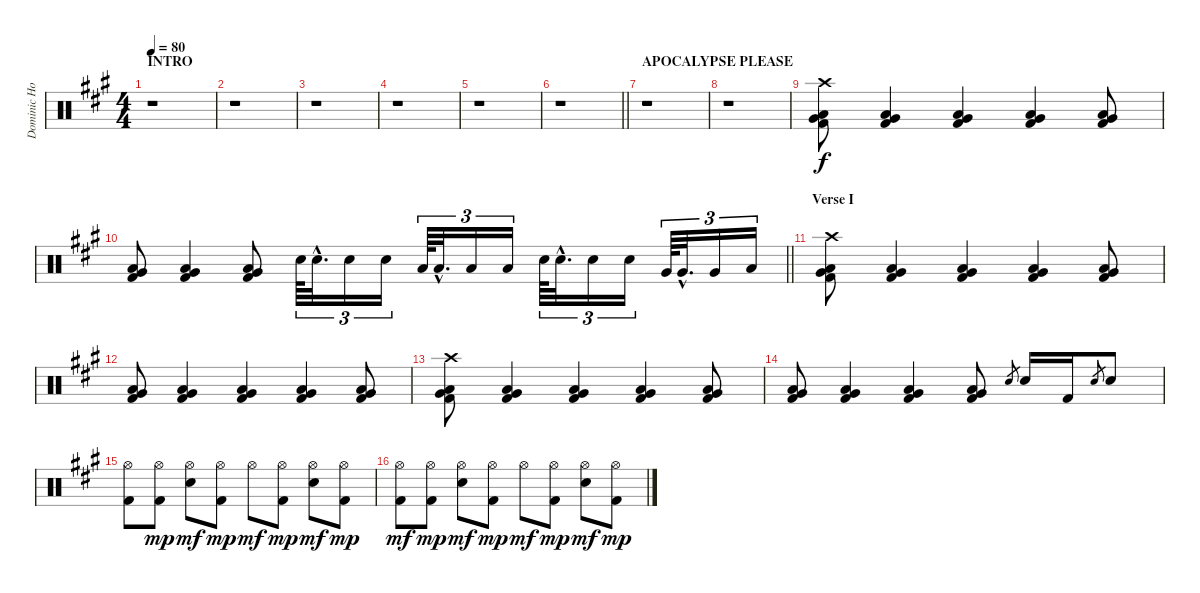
\track ("Dominic Howard Drums" "Dominic Ho") {instrument percussion}
\staff {score}
\articulation defaults
\ts (4 4)
\section ("" "INTRO")
\tempo 80
\clef neutral
\ks a
r.1{dy f} |
r.1 |
r.1 |
r.1 |
r.1 |
\barLineRight lightlight
r.1 |
\section ("" "APOCALYPSE PLEASE")
r.1 |
r.1 |
("Crash high (hit)" "Low Floor Tom (hit)" "Very Low Tom (hit)" "Kick (hit) 2").8{bd 30} ("Low Floor Tom (hit)" "Very Low Tom (hit)" "Kick (hit) 2").4{bd 30} ("Low Floor Tom (hit)" "Very Low Tom (hit)" "Kick (hit) 2").4{bd 30} ("Low Floor Tom (hit)" "Very Low Tom (hit)" "Kick (hit) 2").4{bd 30} ("Low Floor Tom (hit)" "Very Low Tom (hit)" "Kick (hit) 2").8{bd 30} |
\barLineRight lightlight
("Low Floor Tom (hit)" "Very Low Tom (hit)" "Kick (hit) 2").8{bd 30} ("Low Floor Tom (hit)" "Very Low Tom (hit)" "Kick (hit) 2").4{bd 30} ("Low Floor Tom (hit)" "Very Low Tom (hit)" "Kick (hit) 2").8{bd 30} "Electric Snare (hit)".64{tu (3 2)} "Electric Snare (hit)"{hac}.32{d tu (3 2)} "Electric Snare (hit)".16{tu (3 2)} "Electric Snare (hit)".16{tu (3 2)} "Low Tom (hit)".64{tu (3 2)} "Low Tom (hit)"{hac}.32{d tu (3 2)} "Low Tom (hit)".16{tu (3 2)} "Low Tom (hit)".16{tu (3 2)} "Electric Snare (hit)".64{tu (3 2)} "Electric Snare (hit)"{hac}.32{d tu (3 2)} "Electric Snare (hit)".16{tu (3 2)} "Electric Snare (hit)".16{tu (3 2)} "Very Low Tom (hit)".64{tu (3 2)} "Very Low Tom (hit)"{hac}.32{d tu (3 2)} "Very Low Tom (hit)".16{tu (3 2)} "Low Floor Tom (hit)".16{tu (3 2)} |
\section ("" "Verse I")
("Crash high (hit)" "Low Floor Tom (hit)" "Very Low Tom (hit)" "Kick (hit) 2").8{bd 30} ("Low Floor Tom (hit)" "Very Low Tom (hit)" "Kick (hit) 2").4{bd 30} ("Low Floor Tom (hit)" "Very Low Tom (hit)" "Kick (hit) 2").4{bd 30} ("Low Floor Tom (hit)" "Very Low Tom (hit)" "Kick (hit) 2").4{bd 30} ("Low Floor Tom (hit)" "Very Low Tom (hit)" "Kick (hit) 2").8{bd 30} |
("Low Floor Tom (hit)" "Very Low Tom (hit)" "Kick (hit) 2").8{bd 30} ("Low Floor Tom (hit)" "Very Low Tom (hit)" "Kick (hit) 2").4{bd 30} ("Low Floor Tom (hit)" "Very Low Tom (hit)" "Kick (hit) 2").4{bd 30} ("Low Floor Tom (hit)" "Very Low Tom (hit)" "Kick (hit) 2").4{bd 30} ("Low Floor Tom (hit)" "Very Low Tom (hit)" "Kick (hit) 2").8{bd 30} |
("Crash high (hit)" "Low Floor Tom (hit)" "Very Low Tom (hit)" "Kick (hit) 2").8{bd 30} ("Low Floor Tom (hit)" "Very Low Tom (hit)" "Kick (hit) 2").4{bd 30} ("Low Floor Tom (hit)" "Very Low Tom (hit)" "Kick (hit) 2").4{bd 30} ("Low Floor Tom (hit)" "Very Low Tom (hit)" "Kick (hit) 2").4{bd 30} ("Low Floor Tom (hit)" "Very Low Tom (hit)" "Kick (hit) 2").8{bd 30} |
("Low Floor Tom (hit)" "Very Low Tom (hit)" "Kick (hit) 2").8{bd 30} ("Low Floor Tom (hit)" "Very Low Tom (hit)" "Kick (hit) 2").4{bd 60} ("Low Floor Tom (hit)" "Very Low Tom (hit)" "Kick (hit) 2").4{bd 60} ("Low Floor Tom (hit)" "Very Low Tom (hit)" "Kick (hit) 2").8{bd 60} "Electric Snare (hit)".8{gr} "Electric Snare (hit)".16 "Kick (hit) 2".16 "Electric Snare (hit)".8{gr} "Electric Snare (hit)".8 |
("Hi-Hat (open)" "Kick (hit) 2").8 ("Hi-Hat (open)" "Kick (hit) 2").8{dy mp} ("Hi-Hat (open)" "Electric Snare (hit)").8{dy mf} ("Hi-Hat (open)" "Kick (hit) 2").8{dy mp} "Hi-Hat (open)".8{dy mf} ("Hi-Hat (open)" "Kick (hit) 2").8{dy mp} ("Hi-Hat (open)" "Electric Snare (hit)").8{dy mf} ("Hi-Hat (open)" "Kick (hit) 2").8{dy mp} |
("Hi-Hat (open)" "Kick (hit) 2").8{dy mf} ("Hi-Hat (open)" "Kick (hit) 2").8{dy mp} ("Hi-Hat (open)" "Electric Snare (hit)").8{dy mf} ("Hi-Hat (open)" "Kick (hit) 2").8{dy mp} "Hi-Hat (open)".8{dy mf} ("Hi-Hat (open)" "Kick (hit) 2").8{dy mp} ("Hi-Hat (open)" "Electric Snare (hit)").8{dy mf} ("Hi-Hat (open)" "Kick (hit) 2").8{dy mp}
